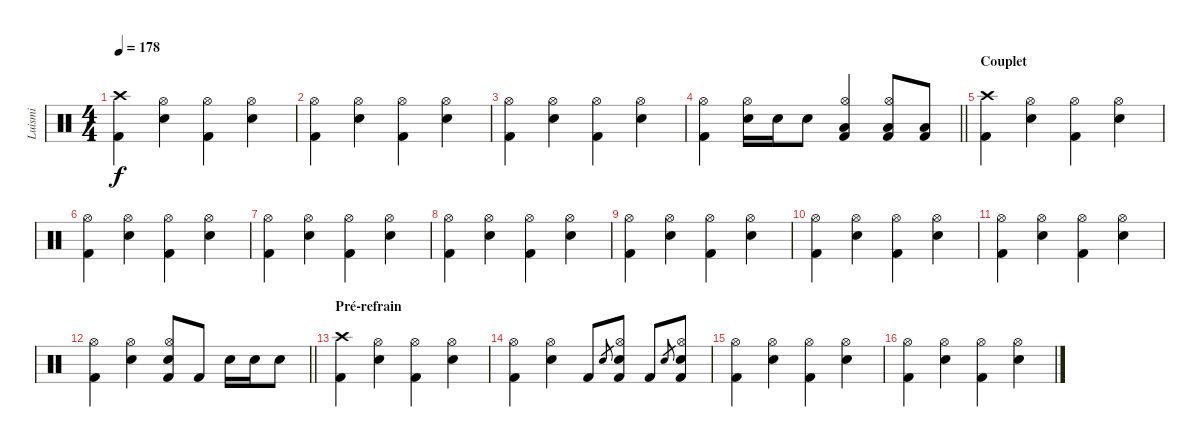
\track ("Luismi" "Luismi") {instrument percussion}
\staff {score}
\articulation defaults
\ts (4 4)
\tempo 178
\clef neutral
\ks c
("Crash high (hit)" "Kick (hit) 2").4{dy f} ("Hi-Hat (open)" "Snare (hit) 2").4 ("Hi-Hat (open)" "Kick (hit) 2").4 ("Hi-Hat (open)" "Snare (hit) 2").4 |
("Hi-Hat (open)" "Kick (hit) 2").4 ("Hi-Hat (open)" "Snare (hit) 2").4 ("Hi-Hat (open)" "Kick (hit) 2").4 ("Hi-Hat (open)" "Snare (hit) 2").4 |
("Hi-Hat (open)" "Kick (hit) 2").4 ("Hi-Hat (open)" "Snare (hit) 2").4 ("Hi-Hat (open)" "Kick (hit) 2").4 ("Hi-Hat (open)" "Snare (hit) 2").4 |
\barLineRight lightlight
("Hi-Hat (open)" "Kick (hit) 2").4 ("Hi-Hat (open)" "Snare (hit) 2").16 "Snare (hit) 2".16 "Snare (hit) 2".8 ("Hi-Hat (open)" "Low Floor Tom (hit)" "Kick (hit) 2").4 ("Hi-Hat (open)" "Low Tom (hit)" "Kick (hit) 2").8 ("Low Floor Tom (hit)" "Kick (hit) 2").8 |
\section ("" "Couplet")
("Crash high (hit)" "Kick (hit) 2").4 ("Hi-Hat (open)" "Snare (hit) 2").4 ("Hi-Hat (open)" "Kick (hit) 2").4 ("Hi-Hat (open)" "Snare (hit) 2").4 |
("Hi-Hat (open)" "Kick (hit) 2").4 ("Hi-Hat (open)" "Snare (hit) 2").4 ("Hi-Hat (open)" "Kick (hit) 2").4 ("Hi-Hat (open)" "Snare (hit) 2").4 |
("Hi-Hat (open)" "Kick (hit) 2").4 ("Hi-Hat (open)" "Snare (hit) 2").4 ("Hi-Hat (open)" "Kick (hit) 2").4 ("Hi-Hat (open)" "Snare (hit) 2").4 |
("Hi-Hat (open)" "Kick (hit) 2").4 ("Hi-Hat (open)" "Snare (hit) 2").4 ("Hi-Hat (open)" "Kick (hit) 2").4 ("Hi-Hat (open)" "Snare (hit) 2").4 |
("Hi-Hat (open)" "Kick (hit) 2").4 ("Hi-Hat (open)" "Snare (hit) 2").4 ("Hi-Hat (open)" "Kick (hit) 2").4 ("Hi-Hat (open)" "Snare (hit) 2").4 |
("Hi-Hat (open)" "Kick (hit) 2").4 ("Hi-Hat (open)" "Snare (hit) 2").4 ("Hi-Hat (open)" "Kick (hit) 2").4 ("Hi-Hat (open)" "Snare (hit) 2").4 |
("Hi-Hat (open)" "Kick (hit) 2").4 ("Hi-Hat (open)" "Snare (hit) 2").4 ("Hi-Hat (open)" "Kick (hit) 2").4 ("Hi-Hat (open)" "Snare (hit) 2").4 |
\barLineRight lightlight
("Hi-Hat (open)" "Kick (hit) 2").4 ("Hi-Hat (open)" "Snare (hit) 2").4 ("Hi-Hat (open)" "Snare (hit) 2" "Kick (hit) 2").8 "Kick (hit) 2".8 "Snare (hit) 2".16 "Snare (hit) 2".16 "Snare (hit) 2".8 |
\section ("" "Pré-refrain")
("Crash high (hit)" "Kick (hit) 2").4 ("Hi-Hat (open)" "Snare (hit) 2").4 ("Hi-Hat (open)" "Kick (hit) 2").4 ("Hi-Hat (open)" "Snare (hit) 2").4 |
("Hi-Hat (open)" "Kick (hit) 2").4 ("Hi-Hat (open)" "Snare (hit) 2").4 "Kick (hit) 2".8 "Snare (hit) 2".8{gr} ("Hi-Hat (open)" "Snare (hit) 2" "Kick (hit) 2").8 "Kick (hit) 2".8 "Snare (hit) 2".8{gr} ("Hi-Hat (open)" "Snare (hit) 2" "Kick (hit) 2").8 |
("Hi-Hat (open)" "Kick (hit) 2").4 ("Hi-Hat (open)" "Snare (hit) 2").4 ("Hi-Hat (open)" "Kick (hit) 2").4 ("Hi-Hat (open)" "Snare (hit) 2").4 |
("Hi-Hat (open)" "Kick (hit) 2").4 ("Hi-Hat (open)" "Snare (hit) 2").4 ("Hi-Hat (open)" "Kick (hit) 2").4 ("Hi-Hat (open)" "Snare (hit) 2").4
